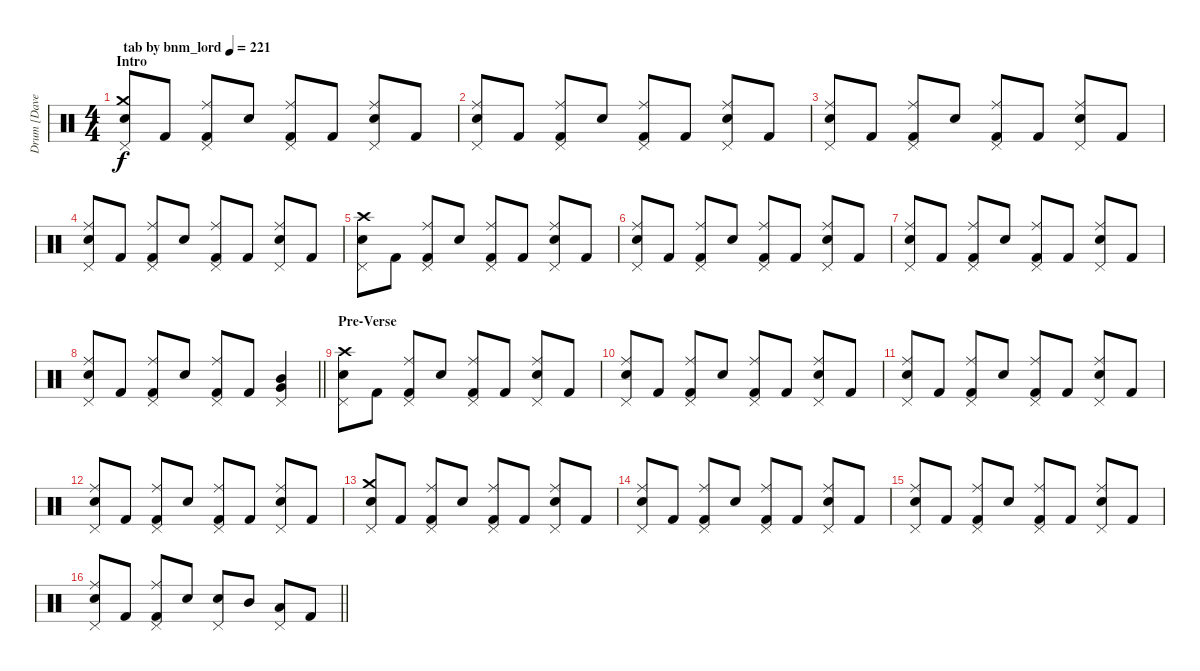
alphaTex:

\track ("Drum [Dave Grohl]" "Drum [Dave") {instrument percussion bank 255}
\staff {score}
\articulation defaults
\ts (4 4)
\section ("" "Intro")
\tempo (221 "tab by bnm_lord")
\clef neutral
\ks c
("Pedal Hi-Hat (hit)" "Crash medium (hit)" "Snare (hit) 2").8{dy f} "Kick (hit) 2".8 ("Pedal Hi-Hat (hit)" "Ride (middle)" "Kick (hit) 2").8 "Snare (hit) 2".8 ("Pedal Hi-Hat (hit)" "Ride (middle)" "Kick (hit) 2").8 "Kick (hit) 2".8 ("Pedal Hi-Hat (hit)" "Ride (middle)" "Snare (hit) 2").8 "Kick (hit) 2".8 |
("Pedal Hi-Hat (hit)" "Ride (middle)" "Snare (hit) 2").8 "Kick (hit) 2".8 ("Pedal Hi-Hat (hit)" "Ride (middle)" "Kick (hit) 2").8 "Snare (hit) 2".8 ("Pedal Hi-Hat (hit)" "Ride (middle)" "Kick (hit) 2").8 "Kick (hit) 2".8 ("Pedal Hi-Hat (hit)" "Ride (middle)" "Snare (hit) 2").8 "Kick (hit) 2".8 |
("Pedal Hi-Hat (hit)" "Ride (middle)" "Snare (hit) 2").8 "Kick (hit) 2".8 ("Pedal Hi-Hat (hit)" "Ride (middle)" "Kick (hit) 2").8 "Snare (hit) 2".8 ("Pedal Hi-Hat (hit)" "Ride (middle)" "Kick (hit) 2").8 "Kick (hit) 2".8 ("Pedal Hi-Hat (hit)" "Ride (middle)" "Snare (hit) 2").8 "Kick (hit) 2".8 |
("Pedal Hi-Hat (hit)" "Ride (middle)" "Snare (hit) 2").8 "Kick (hit) 2".8 ("Pedal Hi-Hat (hit)" "Ride (middle)" "Kick (hit) 2").8 "Snare (hit) 2".8 ("Pedal Hi-Hat (hit)" "Ride (middle)" "Kick (hit) 2").8 "Kick (hit) 2".8 ("Pedal Hi-Hat (hit)" "Ride (middle)" "Snare (hit) 2").8 "Kick (hit) 2".8 |
("Pedal Hi-Hat (hit)" "Crash high (hit)" "Snare (hit) 2").8 "Kick (hit) 2".8 ("Pedal Hi-Hat (hit)" "Ride (middle)" "Kick (hit) 2").8 "Snare (hit) 2".8 ("Pedal Hi-Hat (hit)" "Ride (middle)" "Kick (hit) 2").8 "Kick (hit) 2".8 ("Pedal Hi-Hat (hit)" "Ride (middle)" "Snare (hit) 2").8 "Kick (hit) 2".8 |
("Pedal Hi-Hat (hit)" "Ride (middle)" "Snare (hit) 2").8 "Kick (hit) 2".8 ("Pedal Hi-Hat (hit)" "Ride (middle)" "Kick (hit) 2").8 "Snare (hit) 2".8 ("Pedal Hi-Hat (hit)" "Ride (middle)" "Kick (hit) 2").8 "Kick (hit) 2".8 ("Pedal Hi-Hat (hit)" "Ride (middle)" "Snare (hit) 2").8 "Kick (hit) 2".8 |
("Pedal Hi-Hat (hit)" "Ride (middle)" "Snare (hit) 2").8 "Kick (hit) 2".8 ("Pedal Hi-Hat (hit)" "Ride (middle)" "Kick (hit) 2").8 "Snare (hit) 2".8 ("Pedal Hi-Hat (hit)" "Ride (middle)" "Kick (hit) 2").8 "Kick (hit) 2".8 ("Pedal Hi-Hat (hit)" "Ride (middle)" "Snare (hit) 2").8 "Kick (hit) 2".8 |
\barLineRight lightlight
("Pedal Hi-Hat (hit)" "Ride (middle)" "Snare (hit) 2").8 "Kick (hit) 2".8 ("Pedal Hi-Hat (hit)" "Ride (middle)" "Kick (hit) 2").8 "Snare (hit) 2".8 ("Pedal Hi-Hat (hit)" "Ride (middle)" "Kick (hit) 2").8 "Kick (hit) 2".8 ("Pedal Hi-Hat (hit)" "Mid Tom (hit)" "Very Low Tom (hit)").4 |
\section ("" "Pre-Verse")
("Pedal Hi-Hat (hit)" "Crash high (hit)" "Snare (hit) 2").8 "Kick (hit) 2".8 ("Pedal Hi-Hat (hit)" "Ride (middle)" "Kick (hit) 2").8 "Snare (hit) 2".8 ("Pedal Hi-Hat (hit)" "Ride (middle)" "Kick (hit) 2").8 "Kick (hit) 2".8 ("Pedal Hi-Hat (hit)" "Ride (middle)" "Snare (hit) 2").8 "Kick (hit) 2".8 |
("Pedal Hi-Hat (hit)" "Ride (middle)" "Snare (hit) 2").8 "Kick (hit) 2".8 ("Pedal Hi-Hat (hit)" "Ride (middle)" "Kick (hit) 2").8 "Snare (hit) 2".8 ("Pedal Hi-Hat (hit)" "Ride (middle)" "Kick (hit) 2").8 "Kick (hit) 2".8 ("Pedal Hi-Hat (hit)" "Ride (middle)" "Snare (hit) 2").8 "Kick (hit) 2".8 |
("Pedal Hi-Hat (hit)" "Ride (middle)" "Snare (hit) 2").8 "Kick (hit) 2".8 ("Pedal Hi-Hat (hit)" "Ride (middle)" "Kick (hit) 2").8 "Snare (hit) 2".8 ("Pedal Hi-Hat (hit)" "Ride (middle)" "Kick (hit) 2").8 "Kick (hit) 2".8 ("Pedal Hi-Hat (hit)" "Ride (middle)" "Snare (hit) 2").8 "Kick (hit) 2".8 |
("Pedal Hi-Hat (hit)" "Ride (middle)" "Snare (hit) 2").8 "Kick (hit) 2".8 ("Pedal Hi-Hat (hit)" "Ride (middle)" "Kick (hit) 2").8 "Snare (hit) 2".8 ("Pedal Hi-Hat (hit)" "Ride (middle)" "Kick (hit) 2").8 "Kick (hit) 2".8 ("Pedal Hi-Hat (hit)" "Ride (middle)" "Snare (hit) 2").8 "Kick (hit) 2".8 |
("Pedal Hi-Hat (hit)" "Crash medium (hit)" "Snare (hit) 2").8 "Kick (hit) 2".8 ("Pedal Hi-Hat (hit)" "Ride (middle)" "Kick (hit) 2").8 "Snare (hit) 2".8 ("Pedal Hi-Hat (hit)" "Ride (middle)" "Kick (hit) 2").8 "Kick (hit) 2".8 ("Pedal Hi-Hat (hit)" "Ride (middle)" "Snare (hit) 2").8 "Kick (hit) 2".8 |
("Pedal Hi-Hat (hit)" "Ride (middle)" "Snare (hit) 2").8 "Kick (hit) 2".8 ("Pedal Hi-Hat (hit)" "Ride (middle)" "Kick (hit) 2").8 "Snare (hit) 2".8 ("Pedal Hi-Hat (hit)" "Ride (middle)" "Kick (hit) 2").8 "Kick (hit) 2".8 ("Pedal Hi-Hat (hit)" "Ride (middle)" "Snare (hit) 2").8 "Kick (hit) 2".8 |
("Pedal Hi-Hat (hit)" "Ride (middle)" "Snare (hit) 2").8 "Kick (hit) 2".8 ("Pedal Hi-Hat (hit)" "Ride (middle)" "Kick (hit) 2").8 "Snare (hit) 2".8 ("Pedal Hi-Hat (hit)" "Ride (middle)" "Kick (hit) 2").8 "Kick (hit) 2".8 ("Pedal Hi-Hat (hit)" "Ride (middle)" "Snare (hit) 2").8 "Kick (hit) 2".8 |
\barLineRight lightlight
("Pedal Hi-Hat (hit)" "Ride (middle)" "Snare (hit) 2").8 "Kick (hit) 2".8 ("Pedal Hi-Hat (hit)" "Ride (middle)" "Kick (hit) 2").8 "Snare (hit) 2".8 ("Pedal Hi-Hat (hit)" "Snare (hit) 2").8 "Mid Tom (hit)".8 ("Pedal Hi-Hat (hit)" "Low Tom (hit)").8 "Kick (hit) 2".8
